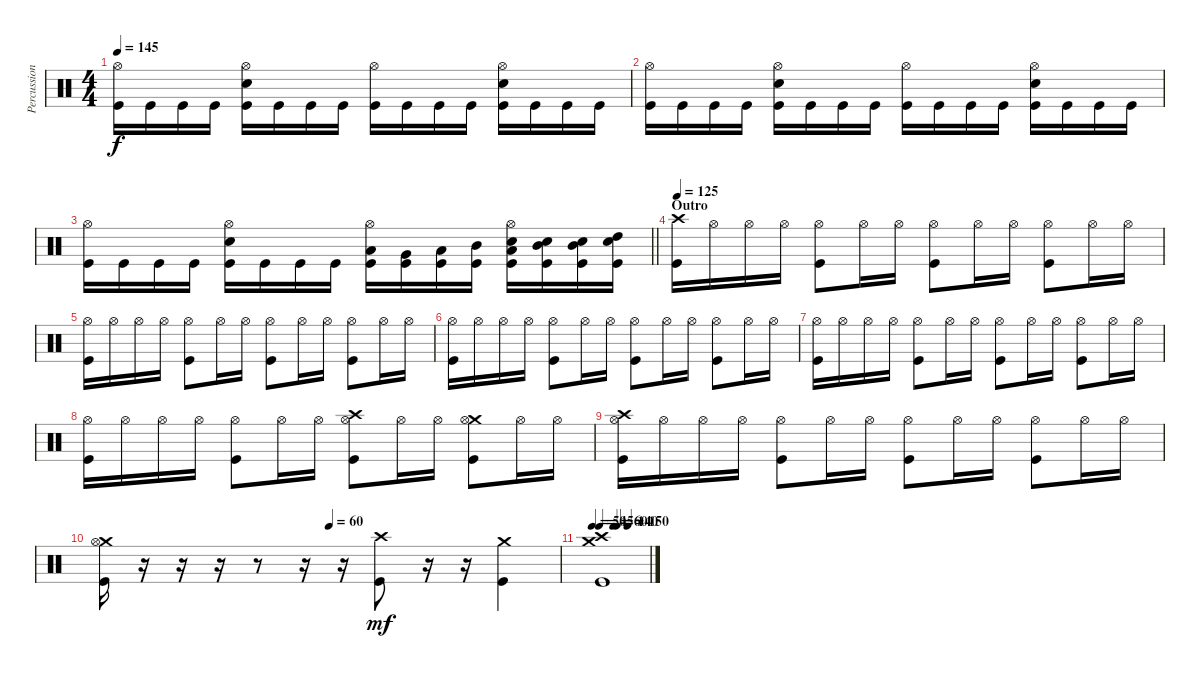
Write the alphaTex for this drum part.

\track ("Percussion" "Percussion") {instrument percussion}
\staff {score}
\articulation defaults
\ts (4 4)
\tempo 145
\clef neutral
\ks c
("Hi-Hat (open)" "Kick (hit)").16{dy f} "Kick (hit)".16 "Kick (hit)".16 "Kick (hit)".16 ("Hi-Hat (open)" "Snare (hit) 2" "Kick (hit)").16 "Kick (hit)".16 "Kick (hit)".16 "Kick (hit)".16 ("Hi-Hat (open)" "Kick (hit)").16 "Kick (hit)".16 "Kick (hit)".16 "Kick (hit)".16 ("Hi-Hat (open)" "Snare (hit) 2" "Kick (hit)").16 "Kick (hit)".16 "Kick (hit)".16 "Kick (hit)".16 |
("Hi-Hat (open)" "Kick (hit)").16 "Kick (hit)".16 "Kick (hit)".16 "Kick (hit)".16 ("Hi-Hat (open)" "Snare (hit) 2" "Kick (hit)").16 "Kick (hit)".16 "Kick (hit)".16 "Kick (hit)".16 ("Hi-Hat (open)" "Kick (hit)").16 "Kick (hit)".16 "Kick (hit)".16 "Kick (hit)".16 ("Hi-Hat (open)" "Snare (hit) 2" "Kick (hit)").16 "Kick (hit)".16 "Kick (hit)".16 "Kick (hit)".16 |
\barLineRight lightlight
("Hi-Hat (open)" "Kick (hit)").16 "Kick (hit)".16 "Kick (hit)".16 "Kick (hit)".16 ("Hi-Hat (open)" "Snare (hit) 2" "Kick (hit)").16 "Kick (hit)".16 "Kick (hit)".16 "Kick (hit)".16 ("Hi-Hat (open)" "Low Floor Tom (hit)" "Kick (hit)").16 ("Very Low Tom (hit)" "Kick (hit)").16 ("Low Tom (hit)" "Kick (hit)").16 ("Mid Tom (hit)" "Kick (hit)").16 ("Hi-Hat (open)" "Low Tom (hit)" "Snare (hit) 2" "Kick (hit)").16 ("Mid Tom (hit)" "Snare (hit) 2" "Kick (hit)").16 ("Mid Tom (hit)" "Snare (hit) 2" "Kick (hit)").16 ("High Tom (hit)" "Snare (hit) 2" "Kick (hit)").16 |
\section ("" "Outro")
\tempo 125
("Crash high (hit)" "Kick (hit)").16 "Hi-Hat (open)".16 "Hi-Hat (open)".16 "Hi-Hat (open)".16 ("Hi-Hat (open)" "Kick (hit)").8 "Hi-Hat (open)".16 "Hi-Hat (open)".16 ("Hi-Hat (open)" "Kick (hit)").8 "Hi-Hat (open)".16 "Hi-Hat (open)".16 ("Hi-Hat (open)" "Kick (hit)").8 "Hi-Hat (open)".16 "Hi-Hat (open)".16 |
("Hi-Hat (open)" "Kick (hit)").16 "Hi-Hat (open)".16 "Hi-Hat (open)".16 "Hi-Hat (open)".16 ("Hi-Hat (open)" "Kick (hit)").8 "Hi-Hat (open)".16 "Hi-Hat (open)".16 ("Hi-Hat (open)" "Kick (hit)").8 "Hi-Hat (open)".16 "Hi-Hat (open)".16 ("Hi-Hat (open)" "Kick (hit)").8 "Hi-Hat (open)".16 "Hi-Hat (open)".16 |
("Hi-Hat (open)" "Kick (hit)").16 "Hi-Hat (open)".16 "Hi-Hat (open)".16 "Hi-Hat (open)".16 ("Hi-Hat (open)" "Kick (hit)").8 "Hi-Hat (open)".16 "Hi-Hat (open)".16 ("Hi-Hat (open)" "Kick (hit)").8 "Hi-Hat (open)".16 "Hi-Hat (open)".16 ("Hi-Hat (open)" "Kick (hit)").8 "Hi-Hat (open)".16 "Hi-Hat (open)".16 |
("Hi-Hat (open)" "Kick (hit)").16 "Hi-Hat (open)".16 "Hi-Hat (open)".16 "Hi-Hat (open)".16 ("Hi-Hat (open)" "Kick (hit)").8 "Hi-Hat (open)".16 "Hi-Hat (open)".16 ("Hi-Hat (open)" "Kick (hit)").8 "Hi-Hat (open)".16 "Hi-Hat (open)".16 ("Hi-Hat (open)" "Kick (hit)").8 "Hi-Hat (open)".16 "Hi-Hat (open)".16 |
("Hi-Hat (open)" "Kick (hit)").16 "Hi-Hat (open)".16 "Hi-Hat (open)".16 "Hi-Hat (open)".16 ("Hi-Hat (open)" "Kick (hit)").8 "Hi-Hat (open)".16 "Hi-Hat (open)".16 ("Crash high (hit)" "Hi-Hat (open)" "Kick (hit)").8 "Hi-Hat (open)".16 "Hi-Hat (open)".16 ("Crash medium (hit)" "Hi-Hat (open)" "Kick (hit)").8 "Hi-Hat (open)".16 "Hi-Hat (open)".16 |
("Crash high (hit)" "Hi-Hat (open)" "Kick (hit)").16 "Hi-Hat (open)".16 "Hi-Hat (open)".16 "Hi-Hat (open)".16 ("Hi-Hat (open)" "Kick (hit)").8 "Hi-Hat (open)".16 "Hi-Hat (open)".16 ("Hi-Hat (open)" "Kick (hit)").8 "Hi-Hat (open)".16 "Hi-Hat (open)".16 ("Hi-Hat (open)" "Kick (hit)").8 "Hi-Hat (open)".16 "Hi-Hat (open)".16 |
\tempo (60 0.5)
("Crash medium (hit)" "Hi-Hat (open)" "Kick (hit)").16 r.16 r.16 r.16 r.8 r.16 r.16 ("Crash high (hit)" "Kick (hit)").8{dy mf} r.16 r.16 ("Crash medium (hit)" "Kick (hit)").4 |
\tempo 50
\tempo (45 0.125)
\tempo (60 0.375)
\tempo (140 0.4375)
\tempo (150 0.625)
("Crash medium (hit)" "Crash high (hit)" "Kick (hit)").1
